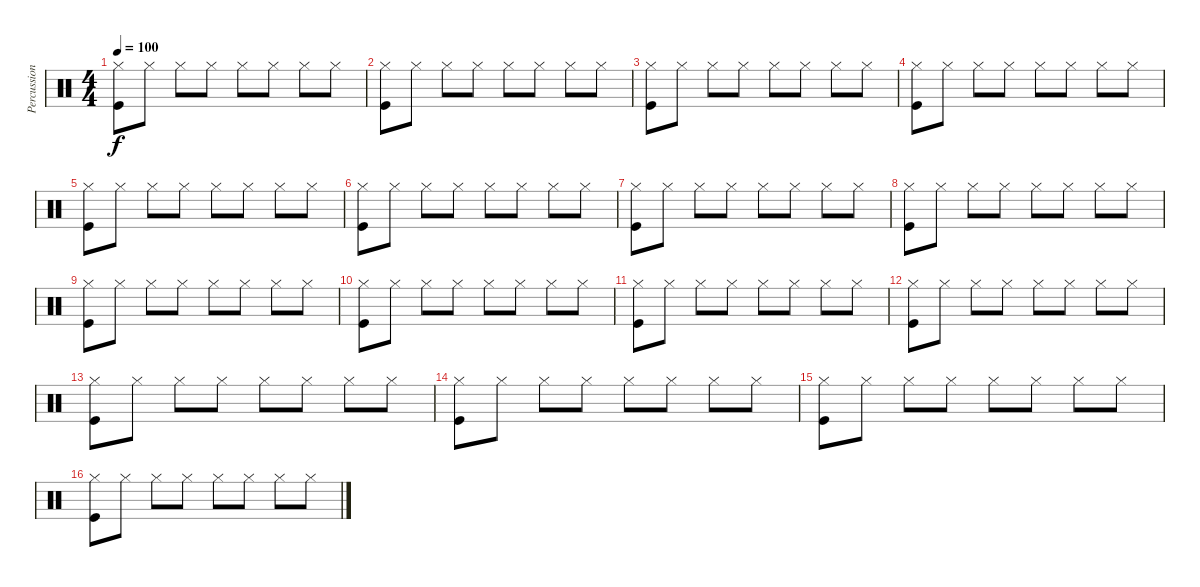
\track ("Percussion" "Percussion") {instrument percussion}
\staff {score}
\articulation defaults
\ts (4 4)
\tempo 100
\clef neutral
\ks c
("Hi-Hat (closed)" "Kick (hit)").8{dy f} "Hi-Hat (closed)".8 "Hi-Hat (closed)".8 "Hi-Hat (closed)".8 "Hi-Hat (closed)".8 "Hi-Hat (closed)".8 "Hi-Hat (closed)".8 "Hi-Hat (closed)".8 |
("Hi-Hat (closed)" "Kick (hit)").8 "Hi-Hat (closed)".8 "Hi-Hat (closed)".8 "Hi-Hat (closed)".8 "Hi-Hat (closed)".8 "Hi-Hat (closed)".8 "Hi-Hat (closed)".8 "Hi-Hat (closed)".8 |
("Hi-Hat (closed)" "Kick (hit)").8 "Hi-Hat (closed)".8 "Hi-Hat (closed)".8 "Hi-Hat (closed)".8 "Hi-Hat (closed)".8 "Hi-Hat (closed)".8 "Hi-Hat (closed)".8 "Hi-Hat (closed)".8 |
("Hi-Hat (closed)" "Kick (hit)").8 "Hi-Hat (closed)".8 "Hi-Hat (closed)".8 "Hi-Hat (closed)".8 "Hi-Hat (closed)".8 "Hi-Hat (closed)".8 "Hi-Hat (closed)".8 "Hi-Hat (closed)".8 |
("Hi-Hat (closed)" "Kick (hit)").8 "Hi-Hat (closed)".8 "Hi-Hat (closed)".8 "Hi-Hat (closed)".8 "Hi-Hat (closed)".8 "Hi-Hat (closed)".8 "Hi-Hat (closed)".8 "Hi-Hat (closed)".8 |
("Hi-Hat (closed)" "Kick (hit)").8 "Hi-Hat (closed)".8 "Hi-Hat (closed)".8 "Hi-Hat (closed)".8 "Hi-Hat (closed)".8 "Hi-Hat (closed)".8 "Hi-Hat (closed)".8 "Hi-Hat (closed)".8 |
("Hi-Hat (closed)" "Kick (hit)").8 "Hi-Hat (closed)".8 "Hi-Hat (closed)".8 "Hi-Hat (closed)".8 "Hi-Hat (closed)".8 "Hi-Hat (closed)".8 "Hi-Hat (closed)".8 "Hi-Hat (closed)".8 |
("Hi-Hat (closed)" "Kick (hit)").8 "Hi-Hat (closed)".8 "Hi-Hat (closed)".8 "Hi-Hat (closed)".8 "Hi-Hat (closed)".8 "Hi-Hat (closed)".8 "Hi-Hat (closed)".8 "Hi-Hat (closed)".8 |
("Hi-Hat (closed)" "Kick (hit)").8 "Hi-Hat (closed)".8 "Hi-Hat (closed)".8 "Hi-Hat (closed)".8 "Hi-Hat (closed)".8 "Hi-Hat (closed)".8 "Hi-Hat (closed)".8 "Hi-Hat (closed)".8 |
("Hi-Hat (closed)" "Kick (hit)").8 "Hi-Hat (closed)".8 "Hi-Hat (closed)".8 "Hi-Hat (closed)".8 "Hi-Hat (closed)".8 "Hi-Hat (closed)".8 "Hi-Hat (closed)".8 "Hi-Hat (closed)".8 |
("Hi-Hat (closed)" "Kick (hit)").8 "Hi-Hat (closed)".8 "Hi-Hat (closed)".8 "Hi-Hat (closed)".8 "Hi-Hat (closed)".8 "Hi-Hat (closed)".8 "Hi-Hat (closed)".8 "Hi-Hat (closed)".8 |
("Hi-Hat (closed)" "Kick (hit)").8 "Hi-Hat (closed)".8 "Hi-Hat (closed)".8 "Hi-Hat (closed)".8 "Hi-Hat (closed)".8 "Hi-Hat (closed)".8 "Hi-Hat (closed)".8 "Hi-Hat (closed)".8 |
("Hi-Hat (closed)" "Kick (hit)").8 "Hi-Hat (closed)".8 "Hi-Hat (closed)".8 "Hi-Hat (closed)".8 "Hi-Hat (closed)".8 "Hi-Hat (closed)".8 "Hi-Hat (closed)".8 "Hi-Hat (closed)".8 |
("Hi-Hat (closed)" "Kick (hit)").8 "Hi-Hat (closed)".8 "Hi-Hat (closed)".8 "Hi-Hat (closed)".8 "Hi-Hat (closed)".8 "Hi-Hat (closed)".8 "Hi-Hat (closed)".8 "Hi-Hat (closed)".8 |
("Hi-Hat (closed)" "Kick (hit)").8 "Hi-Hat (closed)".8 "Hi-Hat (closed)".8 "Hi-Hat (closed)".8 "Hi-Hat (closed)".8 "Hi-Hat (closed)".8 "Hi-Hat (closed)".8 "Hi-Hat (closed)".8 |
("Hi-Hat (closed)" "Kick (hit)").8 "Hi-Hat (closed)".8 "Hi-Hat (closed)".8 "Hi-Hat (closed)".8 "Hi-Hat (closed)".8 "Hi-Hat (closed)".8 "Hi-Hat (closed)".8 "Hi-Hat (closed)".8
